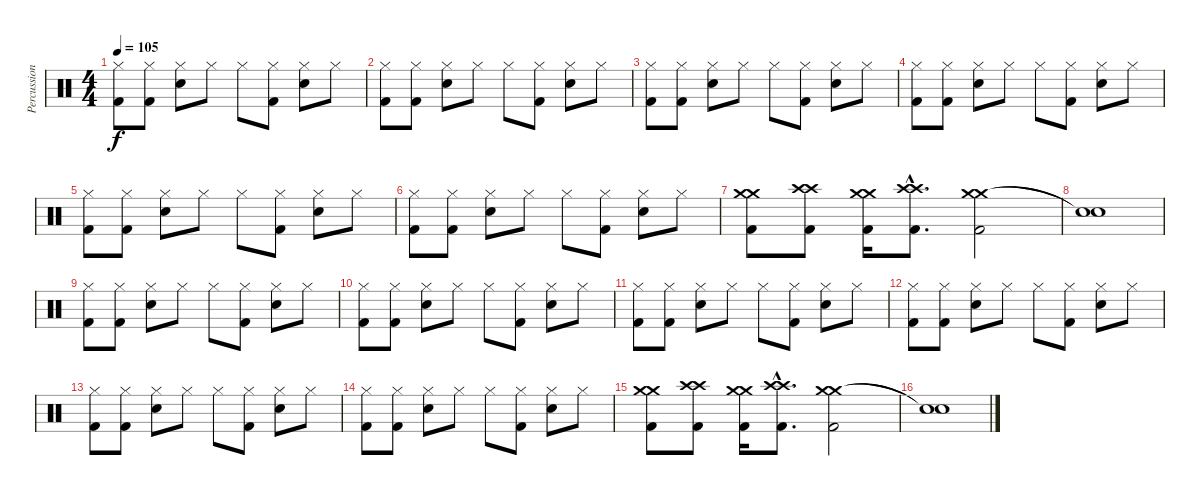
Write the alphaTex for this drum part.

\track ("Percussions" "Percussion") {instrument percussion}
\staff {score}
\articulation defaults
\ts (4 4)
\tempo 105
\clef neutral
\ks c
("Hi-Hat (closed)" "Kick (hit) 2").8{dy f} ("Hi-Hat (closed)" "Kick (hit) 2").8 ("Hi-Hat (closed)" "Snare (hit) 2").8 "Hi-Hat (closed)".8 "Hi-Hat (closed)".8 ("Hi-Hat (closed)" "Kick (hit) 2").8 ("Hi-Hat (closed)" "Snare (hit) 2").8 "Hi-Hat (closed)".8 |
("Hi-Hat (closed)" "Kick (hit) 2").8 ("Hi-Hat (closed)" "Kick (hit) 2").8 ("Hi-Hat (closed)" "Snare (hit) 2").8 "Hi-Hat (closed)".8 "Hi-Hat (closed)".8 ("Hi-Hat (closed)" "Kick (hit) 2").8 ("Hi-Hat (closed)" "Snare (hit) 2").8 "Hi-Hat (closed)".8 |
("Hi-Hat (closed)" "Kick (hit) 2").8 ("Hi-Hat (closed)" "Kick (hit) 2").8 ("Hi-Hat (closed)" "Snare (hit) 2").8 "Hi-Hat (closed)".8 "Hi-Hat (closed)".8 ("Hi-Hat (closed)" "Kick (hit) 2").8 ("Hi-Hat (closed)" "Snare (hit) 2").8 "Hi-Hat (closed)".8 |
("Hi-Hat (closed)" "Kick (hit) 2").8 ("Hi-Hat (closed)" "Kick (hit) 2").8 ("Hi-Hat (closed)" "Snare (hit) 2").8 "Hi-Hat (closed)".8 "Hi-Hat (closed)".8 ("Hi-Hat (closed)" "Kick (hit) 2").8 ("Hi-Hat (closed)" "Snare (hit) 2").8 "Hi-Hat (closed)".8 |
("Hi-Hat (closed)" "Kick (hit) 2").8 ("Hi-Hat (closed)" "Kick (hit) 2").8 ("Hi-Hat (closed)" "Snare (hit) 2").8 "Hi-Hat (closed)".8 "Hi-Hat (closed)".8 ("Hi-Hat (closed)" "Kick (hit) 2").8 ("Hi-Hat (closed)" "Snare (hit) 2").8 "Hi-Hat (closed)".8 |
("Hi-Hat (closed)" "Kick (hit) 2").8 ("Hi-Hat (closed)" "Kick (hit) 2").8 ("Hi-Hat (closed)" "Snare (hit) 2").8 "Hi-Hat (closed)".8 "Hi-Hat (closed)".8 ("Hi-Hat (closed)" "Kick (hit) 2").8 ("Hi-Hat (closed)" "Snare (hit) 2").8 "Hi-Hat (closed)".8 |
("Crash medium (hit)" "Crash medium (hit)" "Kick (hit) 2").8 ("Crash high (hit)" "Crash high (hit)" "Kick (hit) 2").8 ("Crash medium (hit)" "Crash medium (hit)" "Kick (hit) 2").16 ("Crash high (hit)"{hac} "Crash high (hit)"{hac} "Kick (hit) 2"{hac}).8{d} ("Crash medium (hit)" "Crash medium (hit)" "Kick (hit) 2").2 |
("Snare (hit)"{t} "Snare (hit)"{t}).1 |
("Hi-Hat (closed)" "Kick (hit) 2").8 ("Hi-Hat (closed)" "Kick (hit) 2").8 ("Hi-Hat (closed)" "Snare (hit) 2").8 "Hi-Hat (closed)".8 "Hi-Hat (closed)".8 ("Hi-Hat (closed)" "Kick (hit) 2").8 ("Hi-Hat (closed)" "Snare (hit) 2").8 "Hi-Hat (closed)".8 |
("Hi-Hat (closed)" "Kick (hit) 2").8 ("Hi-Hat (closed)" "Kick (hit) 2").8 ("Hi-Hat (closed)" "Snare (hit) 2").8 "Hi-Hat (closed)".8 "Hi-Hat (closed)".8 ("Hi-Hat (closed)" "Kick (hit) 2").8 ("Hi-Hat (closed)" "Snare (hit) 2").8 "Hi-Hat (closed)".8 |
("Hi-Hat (closed)" "Kick (hit) 2").8 ("Hi-Hat (closed)" "Kick (hit) 2").8 ("Hi-Hat (closed)" "Snare (hit) 2").8 "Hi-Hat (closed)".8 "Hi-Hat (closed)".8 ("Hi-Hat (closed)" "Kick (hit) 2").8 ("Hi-Hat (closed)" "Snare (hit) 2").8 "Hi-Hat (closed)".8 |
("Hi-Hat (closed)" "Kick (hit) 2").8 ("Hi-Hat (closed)" "Kick (hit) 2").8 ("Hi-Hat (closed)" "Snare (hit) 2").8 "Hi-Hat (closed)".8 "Hi-Hat (closed)".8 ("Hi-Hat (closed)" "Kick (hit) 2").8 ("Hi-Hat (closed)" "Snare (hit) 2").8 "Hi-Hat (closed)".8 |
("Hi-Hat (closed)" "Kick (hit) 2").8 ("Hi-Hat (closed)" "Kick (hit) 2").8 ("Hi-Hat (closed)" "Snare (hit) 2").8 "Hi-Hat (closed)".8 "Hi-Hat (closed)".8 ("Hi-Hat (closed)" "Kick (hit) 2").8 ("Hi-Hat (closed)" "Snare (hit) 2").8 "Hi-Hat (closed)".8 |
("Hi-Hat (closed)" "Kick (hit) 2").8 ("Hi-Hat (closed)" "Kick (hit) 2").8 ("Hi-Hat (closed)" "Snare (hit) 2").8 "Hi-Hat (closed)".8 "Hi-Hat (closed)".8 ("Hi-Hat (closed)" "Kick (hit) 2").8 ("Hi-Hat (closed)" "Snare (hit) 2").8 "Hi-Hat (closed)".8 |
("Crash medium (hit)" "Crash medium (hit)" "Kick (hit) 2").8 ("Crash high (hit)" "Crash high (hit)" "Kick (hit) 2").8 ("Crash medium (hit)" "Crash medium (hit)" "Kick (hit) 2").16 ("Crash high (hit)"{hac} "Crash high (hit)"{hac} "Kick (hit) 2"{hac}).8{d} ("Crash medium (hit)" "Crash medium (hit)" "Kick (hit) 2").2 |
("Snare (hit)"{t} "Snare (hit)"{t}).1
